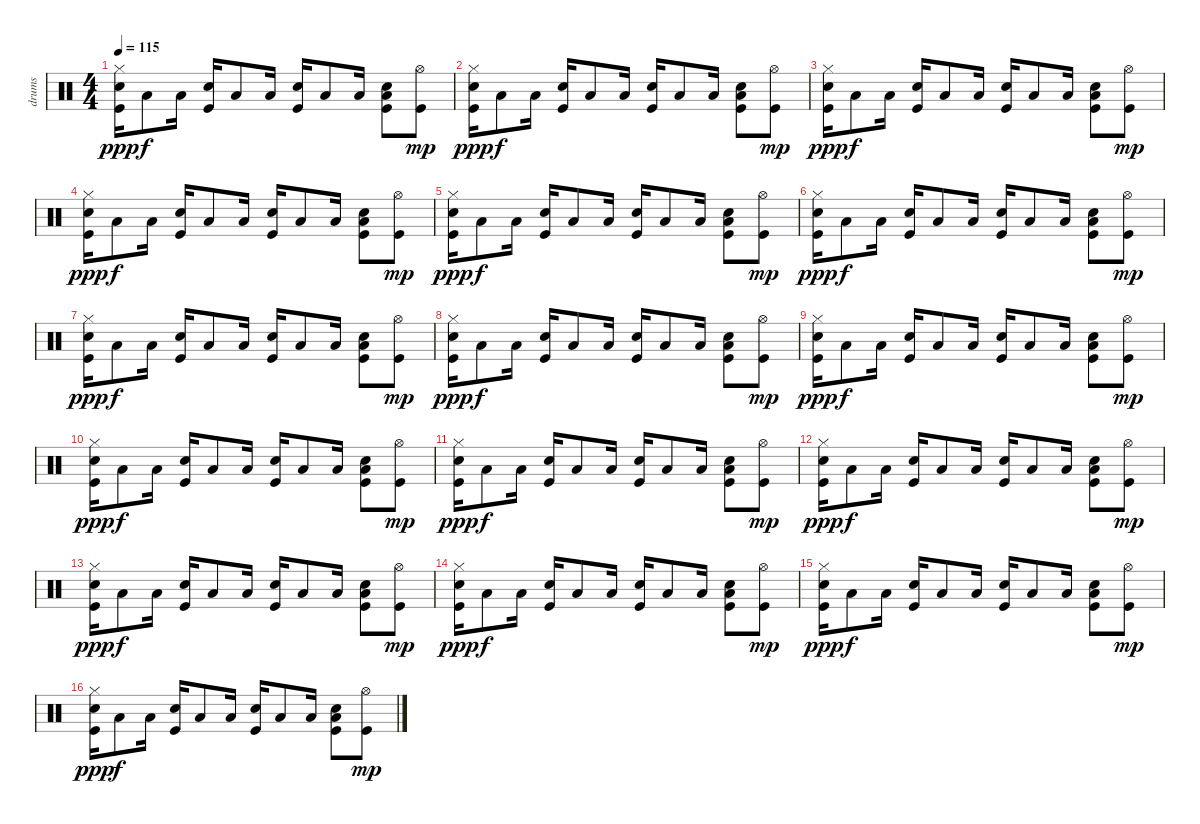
\track ("drums" "drums") {instrument percussion}
\staff {score}
\articulation defaults
\ts (4 4)
\tempo 115
\clef neutral
\ks c
("Kick (hit)" "Electric Snare (hit)" "Hi-Hat (closed)").16{dy ppp} "Low Floor Tom (hit)".8{dy f} "Low Floor Tom (hit)".16 ("Kick (hit)" "Electric Snare (hit)").16 "Low Floor Tom (hit)".8 "Low Floor Tom (hit)".16 ("Kick (hit)" "Electric Snare (hit)").16 "Low Floor Tom (hit)".8 "Low Floor Tom (hit)".16 ("Kick (hit)" "Low Floor Tom (hit)" "Electric Snare (hit)").8 ("Kick (hit)" "Hi-Hat (open)").8{dy mp} |
("Kick (hit)" "Electric Snare (hit)" "Hi-Hat (closed)").16{dy ppp} "Low Floor Tom (hit)".8{dy f} "Low Floor Tom (hit)".16 ("Kick (hit)" "Electric Snare (hit)").16 "Low Floor Tom (hit)".8 "Low Floor Tom (hit)".16 ("Kick (hit)" "Electric Snare (hit)").16 "Low Floor Tom (hit)".8 "Low Floor Tom (hit)".16 ("Kick (hit)" "Low Floor Tom (hit)" "Electric Snare (hit)").8 ("Kick (hit)" "Hi-Hat (open)").8{dy mp} |
("Kick (hit)" "Electric Snare (hit)" "Hi-Hat (closed)").16{dy ppp} "Low Floor Tom (hit)".8{dy f} "Low Floor Tom (hit)".16 ("Kick (hit)" "Electric Snare (hit)").16 "Low Floor Tom (hit)".8 "Low Floor Tom (hit)".16 ("Kick (hit)" "Electric Snare (hit)").16 "Low Floor Tom (hit)".8 "Low Floor Tom (hit)".16 ("Kick (hit)" "Low Floor Tom (hit)" "Electric Snare (hit)").8 ("Kick (hit)" "Hi-Hat (open)").8{dy mp} |
("Kick (hit)" "Electric Snare (hit)" "Hi-Hat (closed)").16{dy ppp} "Low Floor Tom (hit)".8{dy f} "Low Floor Tom (hit)".16 ("Kick (hit)" "Electric Snare (hit)").16 "Low Floor Tom (hit)".8 "Low Floor Tom (hit)".16 ("Kick (hit)" "Electric Snare (hit)").16 "Low Floor Tom (hit)".8 "Low Floor Tom (hit)".16 ("Kick (hit)" "Low Floor Tom (hit)" "Electric Snare (hit)").8 ("Kick (hit)" "Hi-Hat (open)").8{dy mp} |
\section ("" "")
("Kick (hit)" "Electric Snare (hit)" "Hi-Hat (closed)").16{dy ppp} "Low Floor Tom (hit)".8{dy f} "Low Floor Tom (hit)".16 ("Kick (hit)" "Electric Snare (hit)").16 "Low Floor Tom (hit)".8 "Low Floor Tom (hit)".16 ("Kick (hit)" "Electric Snare (hit)").16 "Low Floor Tom (hit)".8 "Low Floor Tom (hit)".16 ("Kick (hit)" "Low Floor Tom (hit)" "Electric Snare (hit)").8 ("Kick (hit)" "Hi-Hat (open)").8{dy mp} |
("Kick (hit)" "Electric Snare (hit)" "Hi-Hat (closed)").16{dy ppp} "Low Floor Tom (hit)".8{dy f} "Low Floor Tom (hit)".16 ("Kick (hit)" "Electric Snare (hit)").16 "Low Floor Tom (hit)".8 "Low Floor Tom (hit)".16 ("Kick (hit)" "Electric Snare (hit)").16 "Low Floor Tom (hit)".8 "Low Floor Tom (hit)".16 ("Kick (hit)" "Low Floor Tom (hit)" "Electric Snare (hit)").8 ("Kick (hit)" "Hi-Hat (open)").8{dy mp} |
("Kick (hit)" "Electric Snare (hit)" "Hi-Hat (closed)").16{dy ppp} "Low Floor Tom (hit)".8{dy f} "Low Floor Tom (hit)".16 ("Kick (hit)" "Electric Snare (hit)").16 "Low Floor Tom (hit)".8 "Low Floor Tom (hit)".16 ("Kick (hit)" "Electric Snare (hit)").16 "Low Floor Tom (hit)".8 "Low Floor Tom (hit)".16 ("Kick (hit)" "Low Floor Tom (hit)" "Electric Snare (hit)").8 ("Kick (hit)" "Hi-Hat (open)").8{dy mp} |
("Kick (hit)" "Electric Snare (hit)" "Hi-Hat (closed)").16{dy ppp} "Low Floor Tom (hit)".8{dy f} "Low Floor Tom (hit)".16 ("Kick (hit)" "Electric Snare (hit)").16 "Low Floor Tom (hit)".8 "Low Floor Tom (hit)".16 ("Kick (hit)" "Electric Snare (hit)").16 "Low Floor Tom (hit)".8 "Low Floor Tom (hit)".16 ("Kick (hit)" "Low Floor Tom (hit)" "Electric Snare (hit)").8 ("Kick (hit)" "Hi-Hat (open)").8{dy mp} |
("Kick (hit)" "Electric Snare (hit)" "Hi-Hat (closed)").16{dy ppp} "Low Floor Tom (hit)".8{dy f} "Low Floor Tom (hit)".16 ("Kick (hit)" "Electric Snare (hit)").16 "Low Floor Tom (hit)".8 "Low Floor Tom (hit)".16 ("Kick (hit)" "Electric Snare (hit)").16 "Low Floor Tom (hit)".8 "Low Floor Tom (hit)".16 ("Kick (hit)" "Low Floor Tom (hit)" "Electric Snare (hit)").8 ("Kick (hit)" "Hi-Hat (open)").8{dy mp} |
("Kick (hit)" "Electric Snare (hit)" "Hi-Hat (closed)").16{dy ppp} "Low Floor Tom (hit)".8{dy f} "Low Floor Tom (hit)".16 ("Kick (hit)" "Electric Snare (hit)").16 "Low Floor Tom (hit)".8 "Low Floor Tom (hit)".16 ("Kick (hit)" "Electric Snare (hit)").16 "Low Floor Tom (hit)".8 "Low Floor Tom (hit)".16 ("Kick (hit)" "Low Floor Tom (hit)" "Electric Snare (hit)").8 ("Kick (hit)" "Hi-Hat (open)").8{dy mp} |
("Kick (hit)" "Electric Snare (hit)" "Hi-Hat (closed)").16{dy ppp} "Low Floor Tom (hit)".8{dy f} "Low Floor Tom (hit)".16 ("Kick (hit)" "Electric Snare (hit)").16 "Low Floor Tom (hit)".8 "Low Floor Tom (hit)".16 ("Kick (hit)" "Electric Snare (hit)").16 "Low Floor Tom (hit)".8 "Low Floor Tom (hit)".16 ("Kick (hit)" "Low Floor Tom (hit)" "Electric Snare (hit)").8 ("Kick (hit)" "Hi-Hat (open)").8{dy mp} |
("Kick (hit)" "Electric Snare (hit)" "Hi-Hat (closed)").16{dy ppp} "Low Floor Tom (hit)".8{dy f} "Low Floor Tom (hit)".16 ("Kick (hit)" "Electric Snare (hit)").16 "Low Floor Tom (hit)".8 "Low Floor Tom (hit)".16 ("Kick (hit)" "Electric Snare (hit)").16 "Low Floor Tom (hit)".8 "Low Floor Tom (hit)".16 ("Kick (hit)" "Low Floor Tom (hit)" "Electric Snare (hit)").8 ("Kick (hit)" "Hi-Hat (open)").8{dy mp} |
("Kick (hit)" "Electric Snare (hit)" "Hi-Hat (closed)").16{dy ppp} "Low Floor Tom (hit)".8{dy f} "Low Floor Tom (hit)".16 ("Kick (hit)" "Electric Snare (hit)").16 "Low Floor Tom (hit)".8 "Low Floor Tom (hit)".16 ("Kick (hit)" "Electric Snare (hit)").16 "Low Floor Tom (hit)".8 "Low Floor Tom (hit)".16 ("Kick (hit)" "Low Floor Tom (hit)" "Electric Snare (hit)").8 ("Kick (hit)" "Hi-Hat (open)").8{dy mp} |
("Kick (hit)" "Electric Snare (hit)" "Hi-Hat (closed)").16{dy ppp} "Low Floor Tom (hit)".8{dy f} "Low Floor Tom (hit)".16 ("Kick (hit)" "Electric Snare (hit)").16 "Low Floor Tom (hit)".8 "Low Floor Tom (hit)".16 ("Kick (hit)" "Electric Snare (hit)").16 "Low Floor Tom (hit)".8 "Low Floor Tom (hit)".16 ("Kick (hit)" "Low Floor Tom (hit)" "Electric Snare (hit)").8 ("Kick (hit)" "Hi-Hat (open)").8{dy mp} |
("Kick (hit)" "Electric Snare (hit)" "Hi-Hat (closed)").16{dy ppp} "Low Floor Tom (hit)".8{dy f} "Low Floor Tom (hit)".16 ("Kick (hit)" "Electric Snare (hit)").16 "Low Floor Tom (hit)".8 "Low Floor Tom (hit)".16 ("Kick (hit)" "Electric Snare (hit)").16 "Low Floor Tom (hit)".8 "Low Floor Tom (hit)".16 ("Kick (hit)" "Low Floor Tom (hit)" "Electric Snare (hit)").8 ("Kick (hit)" "Hi-Hat (open)").8{dy mp} |
("Kick (hit)" "Electric Snare (hit)" "Hi-Hat (closed)").16{dy ppp} "Low Floor Tom (hit)".8{dy f} "Low Floor Tom (hit)".16 ("Kick (hit)" "Electric Snare (hit)").16 "Low Floor Tom (hit)".8 "Low Floor Tom (hit)".16 ("Kick (hit)" "Electric Snare (hit)").16 "Low Floor Tom (hit)".8 "Low Floor Tom (hit)".16 ("Kick (hit)" "Low Floor Tom (hit)" "Electric Snare (hit)").8 ("Kick (hit)" "Hi-Hat (open)").8{dy mp}
